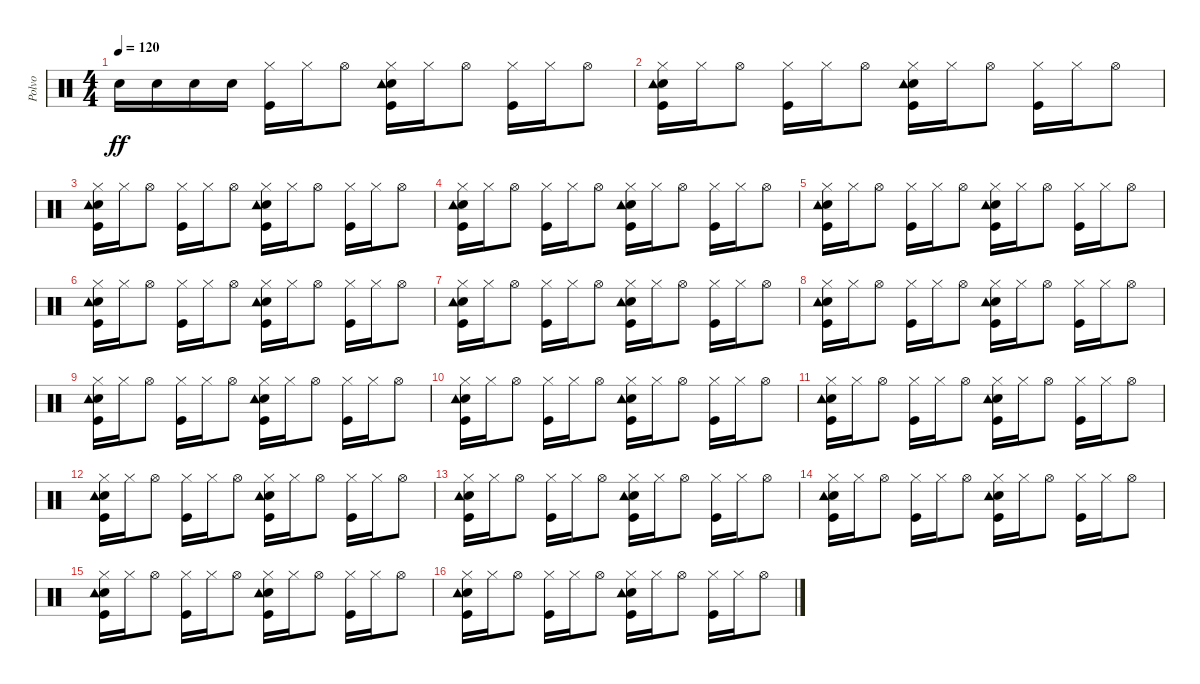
\track ("Polvo" "Polvo") {instrument percussion}
\staff {score}
\articulation defaults
\ts (4 4)
\tempo 120
\clef neutral
\ks c "Electric Snare (hit)".16{dy ff} "Electric Snare (hit)".16 "Electric Snare (hit)".16 "Electric Snare (hit)".16
("Hi-Hat (closed)" "Kick (hit)").16 "Hi-Hat (closed)".16 "Hi-Hat (open)".8 ("Hi-Hat (closed)" "Electric Snare (hit)" "Kick (hit)" "Tambourine (hit)").16 "Hi-Hat (closed)".16 "Hi-Hat (open)".8 ("Hi-Hat (closed)" "Kick (hit)").16 "Hi-Hat (closed)".16 "Hi-Hat (open)".8 |
("Hi-Hat (closed)" "Electric Snare (hit)" "Kick (hit)" "Tambourine (hit)").16 "Hi-Hat (closed)".16 "Hi-Hat (open)".8 ("Hi-Hat (closed)" "Kick (hit)").16 "Hi-Hat (closed)".16 "Hi-Hat (open)".8 ("Hi-Hat (closed)" "Electric Snare (hit)" "Kick (hit)" "Tambourine (hit)").16 "Hi-Hat (closed)".16 "Hi-Hat (open)".8 ("Hi-Hat (closed)" "Kick (hit)").16 "Hi-Hat (closed)".16 "Hi-Hat (open)".8 |
("Hi-Hat (closed)" "Electric Snare (hit)" "Kick (hit)" "Tambourine (hit)").16 "Hi-Hat (closed)".16 "Hi-Hat (open)".8 ("Hi-Hat (closed)" "Kick (hit)").16 "Hi-Hat (closed)".16 "Hi-Hat (open)".8 ("Hi-Hat (closed)" "Electric Snare (hit)" "Kick (hit)" "Tambourine (hit)").16 "Hi-Hat (closed)".16 "Hi-Hat (open)".8 ("Hi-Hat (closed)" "Kick (hit)").16 "Hi-Hat (closed)".16 "Hi-Hat (open)".8 |
("Hi-Hat (closed)" "Electric Snare (hit)" "Kick (hit)" "Tambourine (hit)").16 "Hi-Hat (closed)".16 "Hi-Hat (open)".8 ("Hi-Hat (closed)" "Kick (hit)").16 "Hi-Hat (closed)".16 "Hi-Hat (open)".8 ("Hi-Hat (closed)" "Electric Snare (hit)" "Kick (hit)" "Tambourine (hit)").16 "Hi-Hat (closed)".16 "Hi-Hat (open)".8 ("Hi-Hat (closed)" "Kick (hit)").16 "Hi-Hat (closed)".16 "Hi-Hat (open)".8 |
("Hi-Hat (closed)" "Electric Snare (hit)" "Kick (hit)" "Tambourine (hit)").16 "Hi-Hat (closed)".16 "Hi-Hat (open)".8 ("Hi-Hat (closed)" "Kick (hit)").16 "Hi-Hat (closed)".16 "Hi-Hat (open)".8 ("Hi-Hat (closed)" "Electric Snare (hit)" "Kick (hit)" "Tambourine (hit)").16 "Hi-Hat (closed)".16 "Hi-Hat (open)".8 ("Hi-Hat (closed)" "Kick (hit)").16 "Hi-Hat (closed)".16 "Hi-Hat (open)".8 |
("Hi-Hat (closed)" "Electric Snare (hit)" "Kick (hit)" "Tambourine (hit)").16 "Hi-Hat (closed)".16 "Hi-Hat (open)".8 ("Hi-Hat (closed)" "Kick (hit)").16 "Hi-Hat (closed)".16 "Hi-Hat (open)".8 ("Hi-Hat (closed)" "Electric Snare (hit)" "Kick (hit)" "Tambourine (hit)").16 "Hi-Hat (closed)".16 "Hi-Hat (open)".8 ("Hi-Hat (closed)" "Kick (hit)").16 "Hi-Hat (closed)".16 "Hi-Hat (open)".8 |
("Hi-Hat (closed)" "Electric Snare (hit)" "Kick (hit)" "Tambourine (hit)").16 "Hi-Hat (closed)".16 "Hi-Hat (open)".8 ("Hi-Hat (closed)" "Kick (hit)").16 "Hi-Hat (closed)".16 "Hi-Hat (open)".8 ("Hi-Hat (closed)" "Electric Snare (hit)" "Kick (hit)" "Tambourine (hit)").16 "Hi-Hat (closed)".16 "Hi-Hat (open)".8 ("Hi-Hat (closed)" "Kick (hit)").16 "Hi-Hat (closed)".16 "Hi-Hat (open)".8 |
("Hi-Hat (closed)" "Electric Snare (hit)" "Kick (hit)" "Tambourine (hit)").16 "Hi-Hat (closed)".16 "Hi-Hat (open)".8 ("Hi-Hat (closed)" "Kick (hit)").16 "Hi-Hat (closed)".16 "Hi-Hat (open)".8 ("Hi-Hat (closed)" "Electric Snare (hit)" "Kick (hit)" "Tambourine (hit)").16 "Hi-Hat (closed)".16 "Hi-Hat (open)".8 ("Hi-Hat (closed)" "Kick (hit)").16 "Hi-Hat (closed)".16 "Hi-Hat (open)".8 |
("Hi-Hat (closed)" "Electric Snare (hit)" "Kick (hit)" "Tambourine (hit)").16 "Hi-Hat (closed)".16 "Hi-Hat (open)".8 ("Hi-Hat (closed)" "Kick (hit)").16 "Hi-Hat (closed)".16 "Hi-Hat (open)".8 ("Hi-Hat (closed)" "Electric Snare (hit)" "Kick (hit)" "Tambourine (hit)").16 "Hi-Hat (closed)".16 "Hi-Hat (open)".8 ("Hi-Hat (closed)" "Kick (hit)").16 "Hi-Hat (closed)".16 "Hi-Hat (open)".8 |
("Hi-Hat (closed)" "Electric Snare (hit)" "Kick (hit)" "Tambourine (hit)").16 "Hi-Hat (closed)".16 "Hi-Hat (open)".8 ("Hi-Hat (closed)" "Kick (hit)").16 "Hi-Hat (closed)".16 "Hi-Hat (open)".8 ("Hi-Hat (closed)" "Electric Snare (hit)" "Kick (hit)" "Tambourine (hit)").16 "Hi-Hat (closed)".16 "Hi-Hat (open)".8 ("Hi-Hat (closed)" "Kick (hit)").16 "Hi-Hat (closed)".16 "Hi-Hat (open)".8 |
("Hi-Hat (closed)" "Electric Snare (hit)" "Kick (hit)" "Tambourine (hit)").16 "Hi-Hat (closed)".16 "Hi-Hat (open)".8 ("Hi-Hat (closed)" "Kick (hit)").16 "Hi-Hat (closed)".16 "Hi-Hat (open)".8 ("Hi-Hat (closed)" "Electric Snare (hit)" "Kick (hit)" "Tambourine (hit)").16 "Hi-Hat (closed)".16 "Hi-Hat (open)".8 ("Hi-Hat (closed)" "Kick (hit)").16 "Hi-Hat (closed)".16 "Hi-Hat (open)".8 |
("Hi-Hat (closed)" "Electric Snare (hit)" "Kick (hit)" "Tambourine (hit)").16 "Hi-Hat (closed)".16 "Hi-Hat (open)".8 ("Hi-Hat (closed)" "Kick (hit)").16 "Hi-Hat (closed)".16 "Hi-Hat (open)".8 ("Hi-Hat (closed)" "Electric Snare (hit)" "Kick (hit)" "Tambourine (hit)").16 "Hi-Hat (closed)".16 "Hi-Hat (open)".8 ("Hi-Hat (closed)" "Kick (hit)").16 "Hi-Hat (closed)".16 "Hi-Hat (open)".8 |
("Hi-Hat (closed)" "Electric Snare (hit)" "Kick (hit)" "Tambourine (hit)").16 "Hi-Hat (closed)".16 "Hi-Hat (open)".8 ("Hi-Hat (closed)" "Kick (hit)").16 "Hi-Hat (closed)".16 "Hi-Hat (open)".8 ("Hi-Hat (closed)" "Electric Snare (hit)" "Kick (hit)" "Tambourine (hit)").16 "Hi-Hat (closed)".16 "Hi-Hat (open)".8 ("Hi-Hat (closed)" "Kick (hit)").16 "Hi-Hat (closed)".16 "Hi-Hat (open)".8 |
("Hi-Hat (closed)" "Electric Snare (hit)" "Kick (hit)" "Tambourine (hit)").16 "Hi-Hat (closed)".16 "Hi-Hat (open)".8 ("Hi-Hat (closed)" "Kick (hit)").16 "Hi-Hat (closed)".16 "Hi-Hat (open)".8 ("Hi-Hat (closed)" "Electric Snare (hit)" "Kick (hit)" "Tambourine (hit)").16 "Hi-Hat (closed)".16 "Hi-Hat (open)".8 ("Hi-Hat (closed)" "Kick (hit)").16 "Hi-Hat (closed)".16 "Hi-Hat (open)".8 |
("Hi-Hat (closed)" "Electric Snare (hit)" "Kick (hit)" "Tambourine (hit)").16 "Hi-Hat (closed)".16 "Hi-Hat (open)".8 ("Hi-Hat (closed)" "Kick (hit)").16 "Hi-Hat (closed)".16 "Hi-Hat (open)".8 ("Hi-Hat (closed)" "Electric Snare (hit)" "Kick (hit)" "Tambourine (hit)").16 "Hi-Hat (closed)".16 "Hi-Hat (open)".8 ("Hi-Hat (closed)" "Kick (hit)").16 "Hi-Hat (closed)".16 "Hi-Hat (open)".8 |
("Hi-Hat (closed)" "Electric Snare (hit)" "Kick (hit)" "Tambourine (hit)").16 "Hi-Hat (closed)".16 "Hi-Hat (open)".8 ("Hi-Hat (closed)" "Kick (hit)").16 "Hi-Hat (closed)".16 "Hi-Hat (open)".8 ("Hi-Hat (closed)" "Electric Snare (hit)" "Kick (hit)" "Tambourine (hit)").16 "Hi-Hat (closed)".16 "Hi-Hat (open)".8 ("Hi-Hat (closed)" "Kick (hit)").16 "Hi-Hat (closed)".16 "Hi-Hat (open)".8
